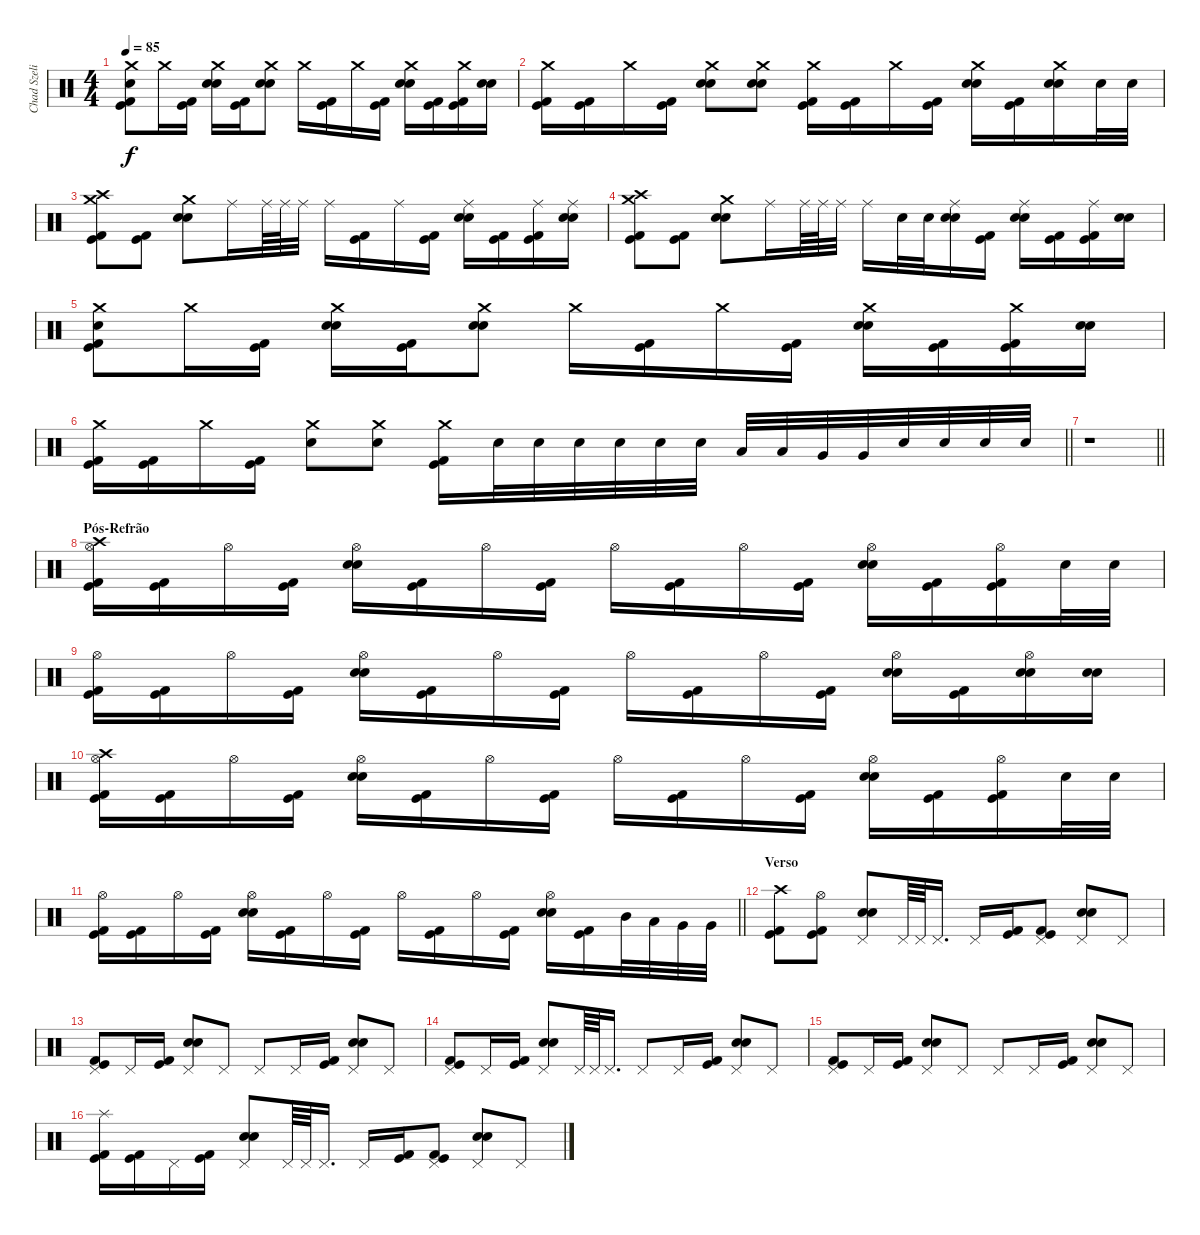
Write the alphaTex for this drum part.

\track ("Chad Szeliga" "Chad Szeli") {instrument percussion}
\staff {score}
\articulation defaults
\ts (4 4)
\tempo 85
\clef neutral
\ks c
("Snare (hit)" "Kick (hit) 2" "Kick (hit)" "Crash medium (hit)").8{dy f} "Crash medium (hit)".16 ("Kick (hit) 2" "Kick (hit)").16 ("Crash medium (hit)" "Snare (hit) 2" "Snare (hit) 2").16 ("Kick (hit) 2" "Kick (hit)").16 ("Crash medium (hit)" "Snare (hit) 2" "Snare (hit) 2").8 "Crash medium (hit)".16 ("Kick (hit) 2" "Kick (hit)").16 "Crash medium (hit)".16 ("Kick (hit) 2" "Kick (hit)").16 ("Crash medium (hit)" "Snare (hit) 2" "Snare (hit) 2").16 ("Kick (hit) 2" "Kick (hit)").16 ("Crash medium (hit)" "Kick (hit) 2" "Kick (hit)").16 ("Snare (hit) 2" "Snare (hit) 2").16 |
("Crash medium (hit)" "Kick (hit) 2" "Kick (hit)").16 ("Kick (hit) 2" "Kick (hit)").16 "Crash medium (hit)".16 ("Kick (hit) 2" "Kick (hit)").16 ("Crash medium (hit)" "Snare (hit) 2" "Snare (hit) 2").8 ("Crash medium (hit)" "Snare (hit) 2" "Snare (hit) 2").8 ("Crash medium (hit)" "Kick (hit) 2" "Kick (hit)").16 ("Kick (hit) 2" "Kick (hit)").16 "Crash medium (hit)".16 ("Kick (hit) 2" "Kick (hit)").16 ("Crash medium (hit)" "Snare (hit) 2" "Snare (hit) 2").16 ("Kick (hit) 2" "Kick (hit)").16 ("Crash medium (hit)" "Snare (hit) 2" "Snare (hit) 2").16 "Snare (hit) 2".32 "Snare (hit) 2".32 |
("Crash high (hit)" "Kick (hit) 2" "Kick (hit)" "Crash medium (hit)").8 ("Kick (hit) 2" "Kick (hit)").8 ("Crash medium (hit)" "Snare (hit) 2" "Snare (hit) 2").8 "Ride (middle)".16 "Ride (middle)".64 "Ride (middle)".64 "Ride (middle)".32 "Ride (middle)".16 ("Kick (hit) 2" "Kick (hit)").16 "Ride (middle)".16 ("Kick (hit) 2" "Kick (hit)").16 ("Ride (middle)" "Snare (hit) 2" "Snare (hit) 2").16 ("Kick (hit) 2" "Kick (hit)").16 ("Ride (middle)" "Kick (hit) 2" "Kick (hit)").16 ("Ride (middle)" "Snare (hit) 2" "Snare (hit) 2").16 |
("Crash high (hit)" "Kick (hit) 2" "Kick (hit)" "Crash medium (hit)").8 ("Kick (hit) 2" "Kick (hit)").8 ("Crash medium (hit)" "Snare (hit) 2" "Snare (hit) 2").8 "Ride (middle)".16 "Ride (middle)".64 "Ride (middle)".64 "Ride (middle)".32 "Ride (middle)".16 "Snare (hit) 2".32 "Snare (hit) 2".32 ("Ride (middle)" "Snare (hit) 2" "Snare (hit) 2").16 ("Kick (hit) 2" "Kick (hit)").16 ("Ride (middle)" "Snare (hit) 2" "Snare (hit) 2").16 ("Kick (hit) 2" "Kick (hit)").16 ("Ride (middle)" "Kick (hit) 2" "Kick (hit)").16 ("Snare (hit) 2" "Snare (hit) 2").16 |
("Snare (hit)" "Kick (hit) 2" "Kick (hit)" "Crash medium (hit)").8 "Crash medium (hit)".16 ("Kick (hit) 2" "Kick (hit)").16 ("Crash medium (hit)" "Snare (hit) 2" "Snare (hit) 2").16 ("Kick (hit) 2" "Kick (hit)").16 ("Crash medium (hit)" "Snare (hit) 2" "Snare (hit) 2").8 "Crash medium (hit)".16 ("Kick (hit) 2" "Kick (hit)").16 "Crash medium (hit)".16 ("Kick (hit) 2" "Kick (hit)").16 ("Crash medium (hit)" "Snare (hit) 2" "Snare (hit) 2").16 ("Kick (hit) 2" "Kick (hit)").16 ("Crash medium (hit)" "Kick (hit) 2" "Kick (hit)").16 ("Snare (hit) 2" "Snare (hit) 2").16 |
\barLineRight lightlight
("Crash medium (hit)" "Kick (hit) 2" "Kick (hit)").16 ("Kick (hit) 2" "Kick (hit)").16 "Crash medium (hit)".16 ("Kick (hit) 2" "Kick (hit)").16 ("Crash medium (hit)" "Snare (hit) 2").8 ("Crash medium (hit)" "Snare (hit) 2").8 ("Crash medium (hit)" "Kick (hit) 2" "Kick (hit)").16 "Snare (hit) 2".32 "Snare (hit) 2".32 "Snare (hit) 2".32 "Snare (hit) 2".32 "Snare (hit) 2".32 "Snare (hit) 2".32 "Low Tom (hit)".32 "Low Tom (hit)".32 "Very Low Tom (hit)".32 "Very Low Tom (hit)".32 "Snare (hit) 2".32 "Snare (hit) 2".32 "Snare (hit) 2".32 "Snare (hit) 2".32 |
\section ("" "")
\barLineRight lightlight
r.1 |
\section ("" "Pós-Refrão")
("Crash high (hit)" "Kick (hit) 2" "Kick (hit)" "Hi-Hat (open)").16 ("Kick (hit) 2" "Kick (hit)").16 "Hi-Hat (open)".16 ("Kick (hit) 2" "Kick (hit)").16 ("Snare (hit) 2" "Snare (hit) 2" "Hi-Hat (open)").16 ("Kick (hit) 2" "Kick (hit)").16 "Hi-Hat (open)".16 ("Kick (hit) 2" "Kick (hit)").16 "Hi-Hat (open)".16 ("Kick (hit) 2" "Kick (hit)").16 "Hi-Hat (open)".16 ("Kick (hit) 2" "Kick (hit)").16 ("Snare (hit) 2" "Snare (hit) 2" "Hi-Hat (open)").16 ("Kick (hit) 2" "Kick (hit)").16 ("Kick (hit) 2" "Kick (hit)" "Hi-Hat (open)").16 "Snare (hit) 2".32 "Snare (hit) 2".32 |
("Kick (hit) 2" "Kick (hit)" "Hi-Hat (open)").16 ("Kick (hit) 2" "Kick (hit)").16 "Hi-Hat (open)".16 ("Kick (hit) 2" "Kick (hit)").16 ("Snare (hit) 2" "Snare (hit) 2" "Hi-Hat (open)").16 ("Kick (hit) 2" "Kick (hit)").16 "Hi-Hat (open)".16 ("Kick (hit) 2" "Kick (hit)").16 "Hi-Hat (open)".16 ("Kick (hit) 2" "Kick (hit)").16 "Hi-Hat (open)".16 ("Kick (hit) 2" "Kick (hit)").16 ("Snare (hit) 2" "Snare (hit) 2" "Hi-Hat (open)").16 ("Kick (hit) 2" "Kick (hit)").16 ("Snare (hit) 2" "Snare (hit) 2" "Hi-Hat (open)").16 ("Snare (hit) 2" "Snare (hit) 2").16 |
("Crash high (hit)" "Kick (hit) 2" "Kick (hit)" "Hi-Hat (open)").16 ("Kick (hit) 2" "Kick (hit)").16 "Hi-Hat (open)".16 ("Kick (hit) 2" "Kick (hit)").16 ("Snare (hit) 2" "Snare (hit) 2" "Hi-Hat (open)").16 ("Kick (hit) 2" "Kick (hit)").16 "Hi-Hat (open)".16 ("Kick (hit) 2" "Kick (hit)").16 "Hi-Hat (open)".16 ("Kick (hit) 2" "Kick (hit)").16 "Hi-Hat (open)".16 ("Kick (hit) 2" "Kick (hit)").16 ("Snare (hit) 2" "Snare (hit) 2" "Hi-Hat (open)").16 ("Kick (hit) 2" "Kick (hit)").16 ("Kick (hit) 2" "Kick (hit)" "Hi-Hat (open)").16 "Snare (hit) 2".32 "Snare (hit) 2".32 |
\barLineRight lightlight
("Kick (hit) 2" "Kick (hit)" "Hi-Hat (open)").16 ("Kick (hit) 2" "Kick (hit)").16 "Hi-Hat (open)".16 ("Kick (hit) 2" "Kick (hit)").16 ("Snare (hit) 2" "Snare (hit) 2" "Hi-Hat (open)").16 ("Kick (hit) 2" "Kick (hit)").16 "Hi-Hat (open)".16 ("Kick (hit) 2" "Kick (hit)").16 "Hi-Hat (open)".16 ("Kick (hit) 2" "Kick (hit)").16 "Hi-Hat (open)".16 ("Kick (hit) 2" "Kick (hit)").16 ("Snare (hit) 2" "Snare (hit) 2" "Hi-Hat (open)").16 ("Kick (hit) 2" "Kick (hit)").16 "Mid Tom (hit)".32 "Low Tom (hit)".32 "Very Low Tom (hit)".32 "Very Low Tom (hit)".32 |
\section ("" "Verso")
("Crash high (hit)" "Kick (hit) 2" "Kick (hit)").8 ("Kick (hit) 2" "Kick (hit)" "Hi-Hat (open)").8 ("Snare (hit) 2" "Snare (hit) 2" "Pedal Hi-Hat (hit)").8 "Pedal Hi-Hat (hit)".64 "Pedal Hi-Hat (hit)".64 "Pedal Hi-Hat (hit)".16{d} "Pedal Hi-Hat (hit)".16 ("Kick (hit) 2" "Kick (hit)").16 ("Kick (hit) 2" "Kick (hit)" "Pedal Hi-Hat (hit)").8 ("Snare (hit) 2" "Snare (hit) 2" "Pedal Hi-Hat (hit)").8 "Pedal Hi-Hat (hit)".8 |
("Kick (hit) 2" "Kick (hit)" "Pedal Hi-Hat (hit)").8 "Pedal Hi-Hat (hit)".16 ("Kick (hit) 2" "Kick (hit)").16 ("Snare (hit) 2" "Snare (hit) 2" "Pedal Hi-Hat (hit)").8 "Pedal Hi-Hat (hit)".8 "Pedal Hi-Hat (hit)".8 "Pedal Hi-Hat (hit)".16 ("Kick (hit) 2" "Kick (hit)").16 ("Snare (hit) 2" "Snare (hit) 2" "Pedal Hi-Hat (hit)").8 "Pedal Hi-Hat (hit)".8 |
("Kick (hit) 2" "Kick (hit)" "Pedal Hi-Hat (hit)").8 "Pedal Hi-Hat (hit)".16 ("Kick (hit) 2" "Kick (hit)").16 ("Snare (hit) 2" "Snare (hit) 2" "Pedal Hi-Hat (hit)").8 "Pedal Hi-Hat (hit)".64 "Pedal Hi-Hat (hit)".64 "Pedal Hi-Hat (hit)".16{d} "Pedal Hi-Hat (hit)".8 "Pedal Hi-Hat (hit)".16 ("Kick (hit) 2" "Kick (hit)").16 ("Snare (hit) 2" "Snare (hit) 2" "Pedal Hi-Hat (hit)").8 "Pedal Hi-Hat (hit)".8 |
("Kick (hit) 2" "Kick (hit)" "Pedal Hi-Hat (hit)").8 "Pedal Hi-Hat (hit)".16 ("Kick (hit) 2" "Kick (hit)").16 ("Snare (hit) 2" "Snare (hit) 2" "Pedal Hi-Hat (hit)").8 "Pedal Hi-Hat (hit)".8 "Pedal Hi-Hat (hit)".8 "Pedal Hi-Hat (hit)".16 ("Kick (hit) 2" "Kick (hit)").16 ("Snare (hit) 2" "Snare (hit) 2" "Pedal Hi-Hat (hit)").8 "Pedal Hi-Hat (hit)".8 |
("Splash (hit)" "Kick (hit) 2" "Kick (hit)").16 ("Kick (hit) 2" "Kick (hit)").16 "Pedal Hi-Hat (hit)".16 ("Kick (hit) 2" "Kick (hit)").16 ("Snare (hit) 2" "Snare (hit) 2" "Pedal Hi-Hat (hit)").8 "Pedal Hi-Hat (hit)".64 "Pedal Hi-Hat (hit)".64 "Pedal Hi-Hat (hit)".16{d} "Pedal Hi-Hat (hit)".16 ("Kick (hit) 2" "Kick (hit)").16 ("Kick (hit) 2" "Kick (hit)" "Pedal Hi-Hat (hit)").8 ("Snare (hit) 2" "Snare (hit) 2" "Pedal Hi-Hat (hit)").8 "Pedal Hi-Hat (hit)".8
